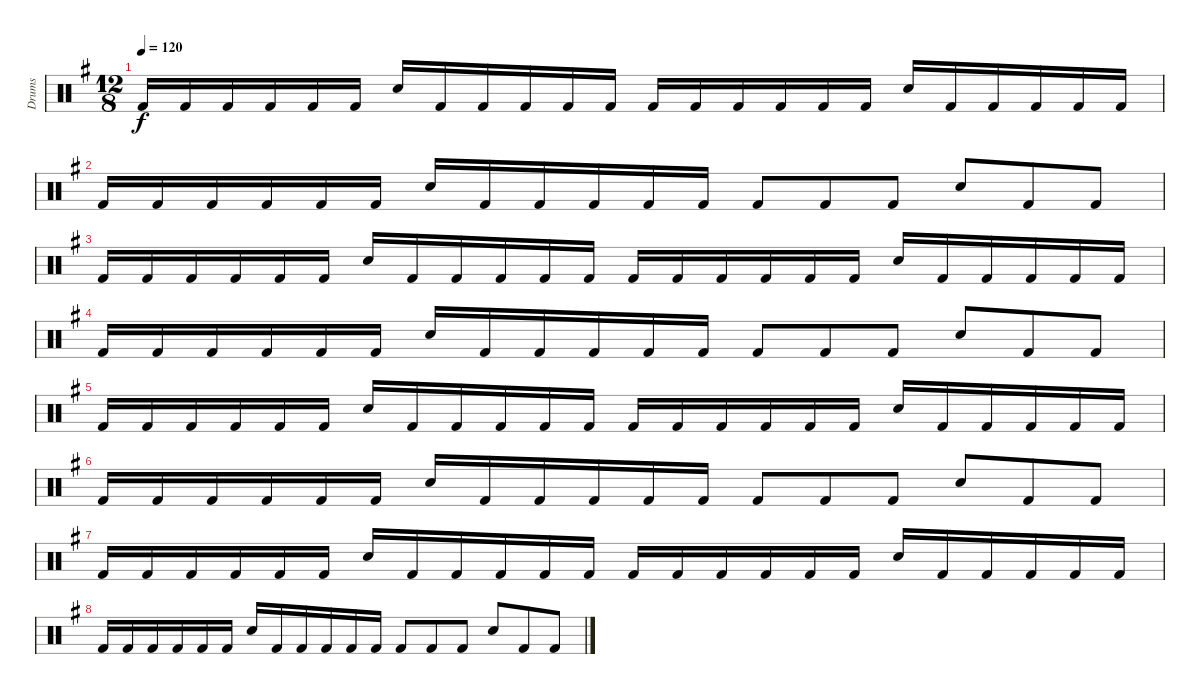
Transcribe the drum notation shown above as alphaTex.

\track ("Drums" "Drums") {instrument percussion}
\staff {score}
\articulation defaults
\ts (12 8)
\tempo 120
\clef neutral
\ks eminor "Kick (hit) 2".16{dy f} "Kick (hit) 2".16 "Kick (hit) 2".16 "Kick (hit) 2".16 "Kick (hit) 2".16 "Kick (hit) 2".16 "Snare (hit) 2".16 "Kick (hit) 2".16 "Kick (hit) 2".16 "Kick (hit) 2".16 "Kick (hit) 2".16 "Kick (hit) 2".16 "Kick (hit) 2".16 "Kick (hit) 2".16 "Kick (hit) 2".16 "Kick (hit) 2".16 "Kick (hit) 2".16 "Kick (hit) 2".16 "Snare (hit) 2".16 "Kick (hit) 2".16 "Kick (hit) 2".16 "Kick (hit) 2".16 "Kick (hit) 2".16 "Kick (hit) 2".16
|
"Kick (hit) 2".16 "Kick (hit) 2".16 "Kick (hit) 2".16 "Kick (hit) 2".16 "Kick (hit) 2".16 "Kick (hit) 2".16 "Snare (hit) 2".16 "Kick (hit) 2".16 "Kick (hit) 2".16 "Kick (hit) 2".16 "Kick (hit) 2".16 "Kick (hit) 2".16 "Kick (hit) 2".8 "Kick (hit) 2".8 "Kick (hit) 2".8 "Snare (hit) 2".8 "Kick (hit) 2".8 "Kick (hit) 2".8 |
"Kick (hit) 2".16 "Kick (hit) 2".16 "Kick (hit) 2".16 "Kick (hit) 2".16 "Kick (hit) 2".16 "Kick (hit) 2".16 "Snare (hit) 2".16 "Kick (hit) 2".16 "Kick (hit) 2".16 "Kick (hit) 2".16 "Kick (hit) 2".16 "Kick (hit) 2".16 "Kick (hit) 2".16 "Kick (hit) 2".16 "Kick (hit) 2".16 "Kick (hit) 2".16 "Kick (hit) 2".16 "Kick (hit) 2".16 "Snare (hit) 2".16 "Kick (hit) 2".16 "Kick (hit) 2".16 "Kick (hit) 2".16 "Kick (hit) 2".16 "Kick (hit) 2".16 |
"Kick (hit) 2".16 "Kick (hit) 2".16 "Kick (hit) 2".16 "Kick (hit) 2".16 "Kick (hit) 2".16 "Kick (hit) 2".16 "Snare (hit) 2".16 "Kick (hit) 2".16 "Kick (hit) 2".16 "Kick (hit) 2".16 "Kick (hit) 2".16 "Kick (hit) 2".16 "Kick (hit) 2".8 "Kick (hit) 2".8 "Kick (hit) 2".8 "Snare (hit) 2".8 "Kick (hit) 2".8 "Kick (hit) 2".8 |
"Kick (hit) 2".16 "Kick (hit) 2".16 "Kick (hit) 2".16 "Kick (hit) 2".16 "Kick (hit) 2".16 "Kick (hit) 2".16 "Snare (hit) 2".16 "Kick (hit) 2".16 "Kick (hit) 2".16 "Kick (hit) 2".16 "Kick (hit) 2".16 "Kick (hit) 2".16 "Kick (hit) 2".16 "Kick (hit) 2".16 "Kick (hit) 2".16 "Kick (hit) 2".16 "Kick (hit) 2".16 "Kick (hit) 2".16 "Snare (hit) 2".16 "Kick (hit) 2".16 "Kick (hit) 2".16 "Kick (hit) 2".16 "Kick (hit) 2".16 "Kick (hit) 2".16 |
"Kick (hit) 2".16 "Kick (hit) 2".16 "Kick (hit) 2".16 "Kick (hit) 2".16 "Kick (hit) 2".16 "Kick (hit) 2".16 "Snare (hit) 2".16 "Kick (hit) 2".16 "Kick (hit) 2".16 "Kick (hit) 2".16 "Kick (hit) 2".16 "Kick (hit) 2".16 "Kick (hit) 2".8 "Kick (hit) 2".8 "Kick (hit) 2".8 "Snare (hit) 2".8 "Kick (hit) 2".8 "Kick (hit) 2".8 |
"Kick (hit) 2".16 "Kick (hit) 2".16 "Kick (hit) 2".16 "Kick (hit) 2".16 "Kick (hit) 2".16 "Kick (hit) 2".16 "Snare (hit) 2".16 "Kick (hit) 2".16 "Kick (hit) 2".16 "Kick (hit) 2".16 "Kick (hit) 2".16 "Kick (hit) 2".16 "Kick (hit) 2".16 "Kick (hit) 2".16 "Kick (hit) 2".16 "Kick (hit) 2".16 "Kick (hit) 2".16 "Kick (hit) 2".16 "Snare (hit) 2".16 "Kick (hit) 2".16 "Kick (hit) 2".16 "Kick (hit) 2".16 "Kick (hit) 2".16 "Kick (hit) 2".16 |
"Kick (hit) 2".16 "Kick (hit) 2".16 "Kick (hit) 2".16 "Kick (hit) 2".16 "Kick (hit) 2".16 "Kick (hit) 2".16 "Snare (hit) 2".16 "Kick (hit) 2".16 "Kick (hit) 2".16 "Kick (hit) 2".16 "Kick (hit) 2".16 "Kick (hit) 2".16 "Kick (hit) 2".8 "Kick (hit) 2".8 "Kick (hit) 2".8 "Snare (hit) 2".8 "Kick (hit) 2".8 "Kick (hit) 2".8
